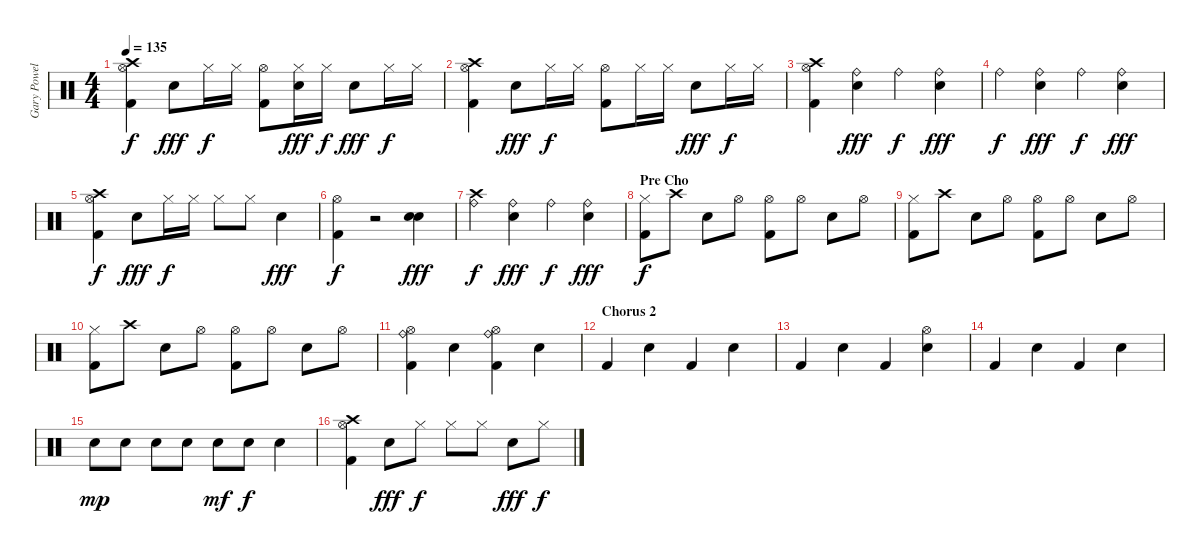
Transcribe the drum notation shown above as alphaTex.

\track ("Gary Powell" "Gary Powel") {instrument percussion}
\staff {score}
\articulation defaults
\ts (4 4)
\tempo 135
\clef neutral
\ks c
("Hi-Hat (open)" "Kick (hit) 2" "Crash high (hit)").4{dy f} "Electric Snare (hit)".8{dy fff} "Hi-Hat (closed)".16{dy f} "Hi-Hat (closed)".16 ("Hi-Hat (open)" "Kick (hit) 2").8 ("Hi-Hat (closed)" "Electric Snare (hit)").16{dy fff} "Hi-Hat (closed)".16{dy f} "Electric Snare (hit)".8{dy fff} "Hi-Hat (closed)".16{dy f} "Hi-Hat (closed)".16 |
("Hi-Hat (open)" "Kick (hit) 2" "Crash high (hit)").4 "Electric Snare (hit)".8{dy fff} "Hi-Hat (closed)".16{dy f} "Hi-Hat (closed)".16 ("Hi-Hat (open)" "Kick (hit) 2").8 "Hi-Hat (closed)".16 "Hi-Hat (closed)".16 "Electric Snare (hit)".8{dy fff} "Hi-Hat (closed)".16{dy f} "Hi-Hat (closed)".16 |
("Hi-Hat (open)" "Kick (hit) 2" "Crash high (hit)").4 ("Ride (bell)" "Electric Snare (hit)").4{dy fff} "Ride (bell)".4{dy f} ("Ride (bell)" "Electric Snare (hit)").4{dy fff} |
"Ride (bell)".4{dy f} ("Ride (bell)" "Electric Snare (hit)").4{dy fff} "Ride (bell)".4{dy f} ("Ride (bell)" "Electric Snare (hit)").4{dy fff} |
("Hi-Hat (open)" "Kick (hit) 2" "Crash high (hit)").4{dy f} "Electric Snare (hit)".8{dy fff} "Hi-Hat (closed)".16{dy f} "Hi-Hat (closed)".16 "Hi-Hat (closed)".8 "Hi-Hat (closed)".8 "Electric Snare (hit)".4{dy fff} |
("Hi-Hat (open)" "Kick (hit) 2").4{dy f} r.2 ("Electric Snare (hit)" "Electric Snare (hit)").4{dy fff} |
("Ride (bell)" "Crash high (hit)").4{dy f} ("Ride (bell)" "Electric Snare (hit)").4{dy fff} "Ride (bell)".4{dy f} ("Ride (bell)" "Electric Snare (hit)").4{dy fff} |
\section ("" "Pre Cho")
("Hi-Hat (closed)" "Kick (hit) 2").8{dy f} "Crash high (hit)".8 "Electric Snare (hit)".8 "Hi-Hat (open)".8 ("Hi-Hat (open)" "Kick (hit) 2").8 "Hi-Hat (open)".8 "Electric Snare (hit)".8 "Hi-Hat (open)".8 |
("Hi-Hat (closed)" "Kick (hit) 2").8 "Crash high (hit)".8 "Electric Snare (hit)".8 "Hi-Hat (open)".8 ("Hi-Hat (open)" "Kick (hit) 2").8 "Hi-Hat (open)".8 "Electric Snare (hit)".8 "Hi-Hat (open)".8 |
("Hi-Hat (closed)" "Kick (hit) 2").8 "Crash high (hit)".8 "Electric Snare (hit)".8 "Hi-Hat (open)".8 ("Hi-Hat (open)" "Kick (hit) 2").8 "Hi-Hat (open)".8 "Electric Snare (hit)".8 "Hi-Hat (open)".8 |
("Hi-Hat (open)" "Ride (bell)" "Kick (hit) 2").4 "Electric Snare (hit)".4 ("Hi-Hat (open)" "Ride (bell)" "Kick (hit) 2").4 "Electric Snare (hit)".4 |
\section ("" "Chorus 2")
"Kick (hit) 2".4 "Electric Snare (hit)".4 "Kick (hit) 2".4 "Electric Snare (hit)".4 |
"Kick (hit) 2".4 "Electric Snare (hit)".4 "Kick (hit) 2".4 ("Hi-Hat (open)" "Electric Snare (hit)").4 |
"Kick (hit) 2".4 "Electric Snare (hit)".4 "Kick (hit) 2".4 "Electric Snare (hit)".4 |
"Electric Snare (hit)".8{dy mp} "Electric Snare (hit)".8 "Electric Snare (hit)".8 "Electric Snare (hit)".8 "Electric Snare (hit)".8{dy mf} "Electric Snare (hit)".8{dy f} "Electric Snare (hit)".4 |
("Hi-Hat (open)" "Kick (hit) 2" "Crash high (hit)").4 "Electric Snare (hit)".8{dy fff} "Hi-Hat (closed)".8{dy f} "Hi-Hat (closed)".8 "Hi-Hat (closed)".8 "Electric Snare (hit)".8{dy fff} "Hi-Hat (closed)".8{dy f}
